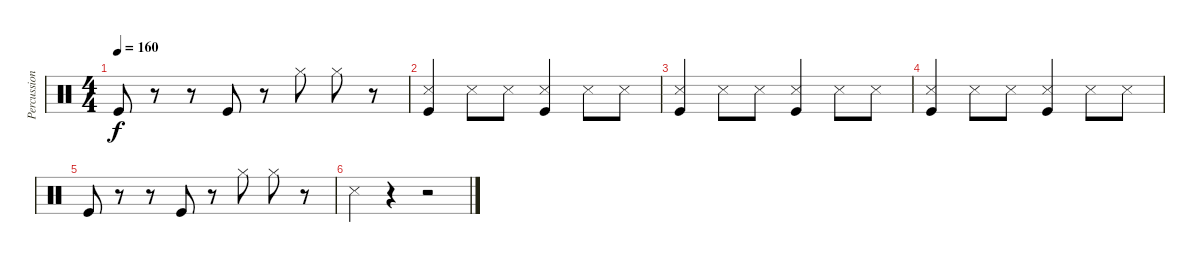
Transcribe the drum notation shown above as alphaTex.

\track ("Percussion" "Percussion") {instrument percussion}
\staff {score}
\articulation defaults
\ts (4 4)
\tempo 160
\clef neutral
\ks c "Kick (hit)".8{dy f}
r.8 r.8 "Kick (hit)".8 r.8 "Hi-Hat (closed)".8 "Hi-Hat (closed)".8 r.8 |
("Snare (side stick) 3" "Kick (hit)").4 "Snare (side stick) 3".8 "Snare (side stick) 3".8 ("Snare (side stick) 3" "Kick (hit)").4 "Snare (side stick) 3".8 "Snare (side stick) 3".8 |
("Snare (side stick) 3" "Kick (hit)").4 "Snare (side stick) 3".8 "Snare (side stick) 3".8 ("Snare (side stick) 3" "Kick (hit)").4 "Snare (side stick) 3".8 "Snare (side stick) 3".8 |
("Snare (side stick) 3" "Kick (hit)").4 "Snare (side stick) 3".8 "Snare (side stick) 3".8 ("Snare (side stick) 3" "Kick (hit)").4 "Snare (side stick) 3".8 "Snare (side stick) 3".8 |
"Kick (hit)".8 r.8 r.8 "Kick (hit)".8 r.8 "Hi-Hat (closed)".8 "Hi-Hat (closed)".8 r.8 |
"Snare (side stick) 3".4 r.4 r.2
